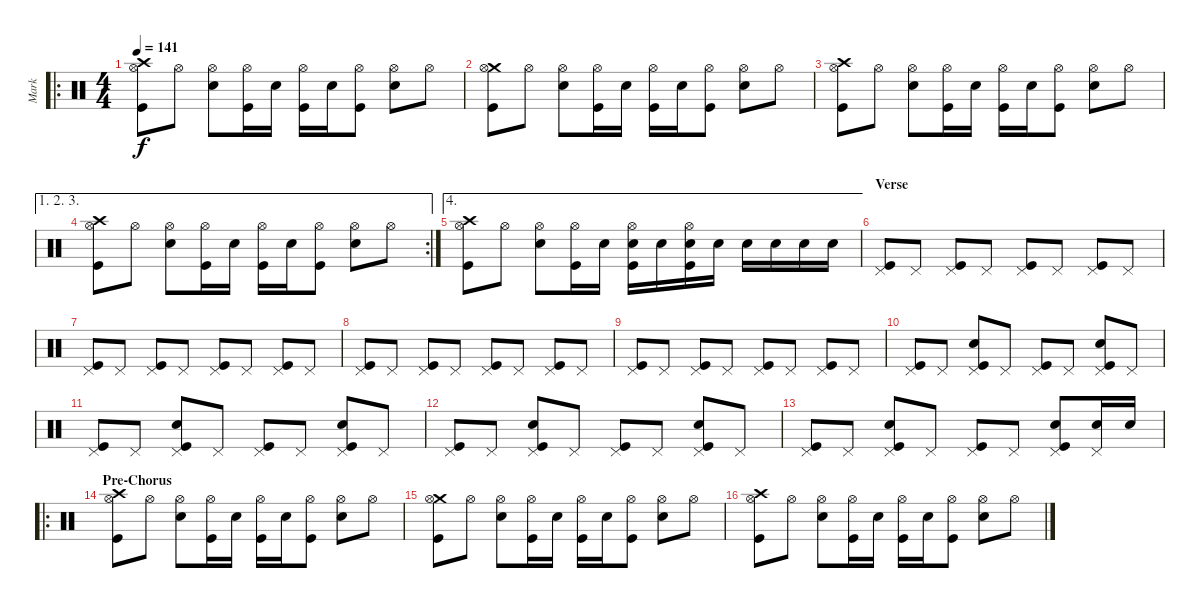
\track ("Mark" "Mark") {instrument percussion}
\staff {score}
\articulation defaults
\ro
\ts (4 4)
\tempo 141
\clef neutral
\ks c
("Crash high (hit)" "Hi-Hat (open)" "Kick (hit)").8{dy f} "Hi-Hat (open)".8 ("Hi-Hat (open)" "Electric Snare (hit)").8 ("Hi-Hat (open)" "Kick (hit)").16 "Electric Snare (hit)".16 ("Hi-Hat (open)" "Kick (hit)").16 "Electric Snare (hit)".16 ("Hi-Hat (open)" "Kick (hit)").8 ("Hi-Hat (open)" "Electric Snare (hit)").8 "Hi-Hat (open)".8 |
("Crash medium (hit)" "Hi-Hat (open)" "Kick (hit)").8 "Hi-Hat (open)".8 ("Hi-Hat (open)" "Electric Snare (hit)").8 ("Hi-Hat (open)" "Kick (hit)").16 "Electric Snare (hit)".16 ("Hi-Hat (open)" "Kick (hit)").16 "Electric Snare (hit)".16 ("Hi-Hat (open)" "Kick (hit)").8 ("Hi-Hat (open)" "Electric Snare (hit)").8 "Hi-Hat (open)".8 |
("Crash high (hit)" "Hi-Hat (open)" "Kick (hit)").8 "Hi-Hat (open)".8 ("Hi-Hat (open)" "Electric Snare (hit)").8 ("Hi-Hat (open)" "Kick (hit)").16 "Electric Snare (hit)".16 ("Hi-Hat (open)" "Kick (hit)").16 "Electric Snare (hit)".16 ("Hi-Hat (open)" "Kick (hit)").8 ("Hi-Hat (open)" "Electric Snare (hit)").8 "Hi-Hat (open)".8 |
\ae (1 2 3)
\rc 2
("Crash high (hit)" "Hi-Hat (open)" "Kick (hit)").8 "Hi-Hat (open)".8 ("Hi-Hat (open)" "Electric Snare (hit)").8 ("Hi-Hat (open)" "Kick (hit)").16 "Electric Snare (hit)".16 ("Hi-Hat (open)" "Kick (hit)").16 "Electric Snare (hit)".16 ("Hi-Hat (open)" "Kick (hit)").8 ("Hi-Hat (open)" "Electric Snare (hit)").8 "Hi-Hat (open)".8 |
\ae 4
("Crash high (hit)" "Hi-Hat (open)" "Kick (hit)").8 "Hi-Hat (open)".8 ("Hi-Hat (open)" "Electric Snare (hit)").8 ("Hi-Hat (open)" "Kick (hit)").16 "Electric Snare (hit)".16 ("Hi-Hat (open)" "Electric Snare (hit)" "Kick (hit)").16 "Electric Snare (hit)".16 ("Hi-Hat (open)" "Electric Snare (hit)" "Kick (hit)").16 "Electric Snare (hit)".16 "Electric Snare (hit)".16 "Electric Snare (hit)".16 "Electric Snare (hit)".16 "Electric Snare (hit)".16 |
\section ("" "Verse")
("Pedal Hi-Hat (hit)" "Kick (hit)").8 "Pedal Hi-Hat (hit)".8 ("Pedal Hi-Hat (hit)" "Kick (hit)").8 "Pedal Hi-Hat (hit)".8 ("Pedal Hi-Hat (hit)" "Kick (hit)").8 "Pedal Hi-Hat (hit)".8 ("Pedal Hi-Hat (hit)" "Kick (hit)").8 "Pedal Hi-Hat (hit)".8 |
("Pedal Hi-Hat (hit)" "Kick (hit)").8 "Pedal Hi-Hat (hit)".8 ("Pedal Hi-Hat (hit)" "Kick (hit)").8 "Pedal Hi-Hat (hit)".8 ("Pedal Hi-Hat (hit)" "Kick (hit)").8 "Pedal Hi-Hat (hit)".8 ("Pedal Hi-Hat (hit)" "Kick (hit)").8 "Pedal Hi-Hat (hit)".8 |
("Pedal Hi-Hat (hit)" "Kick (hit)").8 "Pedal Hi-Hat (hit)".8 ("Pedal Hi-Hat (hit)" "Kick (hit)").8 "Pedal Hi-Hat (hit)".8 ("Pedal Hi-Hat (hit)" "Kick (hit)").8 "Pedal Hi-Hat (hit)".8 ("Pedal Hi-Hat (hit)" "Kick (hit)").8 "Pedal Hi-Hat (hit)".8 |
("Pedal Hi-Hat (hit)" "Kick (hit)").8 "Pedal Hi-Hat (hit)".8 ("Pedal Hi-Hat (hit)" "Kick (hit)").8 "Pedal Hi-Hat (hit)".8 ("Pedal Hi-Hat (hit)" "Kick (hit)").8 "Pedal Hi-Hat (hit)".8 ("Pedal Hi-Hat (hit)" "Kick (hit)").8 "Pedal Hi-Hat (hit)".8 |
("Pedal Hi-Hat (hit)" "Kick (hit)").8 "Pedal Hi-Hat (hit)".8 ("Pedal Hi-Hat (hit)" "Electric Snare (hit)" "Kick (hit)").8 "Pedal Hi-Hat (hit)".8 ("Pedal Hi-Hat (hit)" "Kick (hit)").8 "Pedal Hi-Hat (hit)".8 ("Pedal Hi-Hat (hit)" "Electric Snare (hit)" "Kick (hit)").8 "Pedal Hi-Hat (hit)".8 |
("Pedal Hi-Hat (hit)" "Kick (hit)").8 "Pedal Hi-Hat (hit)".8 ("Pedal Hi-Hat (hit)" "Electric Snare (hit)" "Kick (hit)").8 "Pedal Hi-Hat (hit)".8 ("Pedal Hi-Hat (hit)" "Kick (hit)").8 "Pedal Hi-Hat (hit)".8 ("Pedal Hi-Hat (hit)" "Electric Snare (hit)" "Kick (hit)").8 "Pedal Hi-Hat (hit)".8 |
("Pedal Hi-Hat (hit)" "Kick (hit)").8 "Pedal Hi-Hat (hit)".8 ("Pedal Hi-Hat (hit)" "Electric Snare (hit)" "Kick (hit)").8 "Pedal Hi-Hat (hit)".8 ("Pedal Hi-Hat (hit)" "Kick (hit)").8 "Pedal Hi-Hat (hit)".8 ("Pedal Hi-Hat (hit)" "Electric Snare (hit)" "Kick (hit)").8 "Pedal Hi-Hat (hit)".8 |
("Pedal Hi-Hat (hit)" "Kick (hit)").8 "Pedal Hi-Hat (hit)".8 ("Pedal Hi-Hat (hit)" "Electric Snare (hit)" "Kick (hit)").8 "Pedal Hi-Hat (hit)".8 ("Pedal Hi-Hat (hit)" "Kick (hit)").8 "Pedal Hi-Hat (hit)".8 ("Pedal Hi-Hat (hit)" "Electric Snare (hit)" "Kick (hit)").8 ("Pedal Hi-Hat (hit)" "Electric Snare (hit)").16 "Electric Snare (hit)".16 |
\ro
\section ("" "Pre-Chorus")
("Crash high (hit)" "Hi-Hat (open)" "Kick (hit)").8 "Hi-Hat (open)".8 ("Hi-Hat (open)" "Electric Snare (hit)").8 ("Hi-Hat (open)" "Kick (hit)").16 "Electric Snare (hit)".16 ("Hi-Hat (open)" "Kick (hit)").16 "Electric Snare (hit)".16 ("Hi-Hat (open)" "Kick (hit)").8 ("Hi-Hat (open)" "Electric Snare (hit)").8 "Hi-Hat (open)".8 |
("Crash medium (hit)" "Hi-Hat (open)" "Kick (hit)").8 "Hi-Hat (open)".8 ("Hi-Hat (open)" "Electric Snare (hit)").8 ("Hi-Hat (open)" "Kick (hit)").16 "Electric Snare (hit)".16 ("Hi-Hat (open)" "Kick (hit)").16 "Electric Snare (hit)".16 ("Hi-Hat (open)" "Kick (hit)").8 ("Hi-Hat (open)" "Electric Snare (hit)").8 "Hi-Hat (open)".8 |
("Crash high (hit)" "Hi-Hat (open)" "Kick (hit)").8 "Hi-Hat (open)".8 ("Hi-Hat (open)" "Electric Snare (hit)").8 ("Hi-Hat (open)" "Kick (hit)").16 "Electric Snare (hit)".16 ("Hi-Hat (open)" "Kick (hit)").16 "Electric Snare (hit)".16 ("Hi-Hat (open)" "Kick (hit)").8 ("Hi-Hat (open)" "Electric Snare (hit)").8 "Hi-Hat (open)".8
